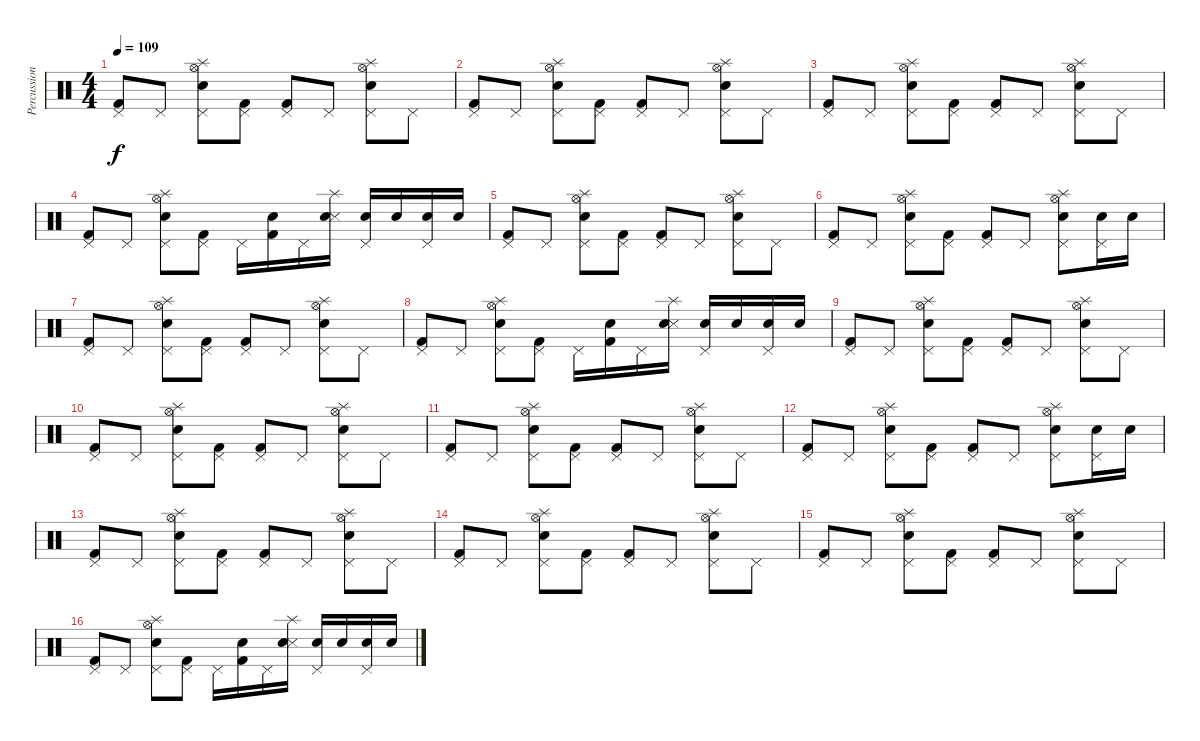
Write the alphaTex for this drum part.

\track ("Percussion" "Percussion") {instrument percussion}
\staff {score}
\articulation defaults
\ts (4 4)
\tempo 109
\clef neutral
\ks c
("Pedal Hi-Hat (hit)" "Kick (hit) 2").8{dy f} "Pedal Hi-Hat (hit)".8 ("Pedal Hi-Hat (hit)" "Splash (hit)" "Electric Snare (hit)" "Hi-Hat (open)").8 ("Pedal Hi-Hat (hit)" "Kick (hit) 2").8 ("Pedal Hi-Hat (hit)" "Kick (hit) 2").8 "Pedal Hi-Hat (hit)".8 ("Pedal Hi-Hat (hit)" "Splash (hit)" "Electric Snare (hit)" "Hi-Hat (open)").8 "Pedal Hi-Hat (hit)".8 |
("Pedal Hi-Hat (hit)" "Kick (hit) 2").8 "Pedal Hi-Hat (hit)".8 ("Pedal Hi-Hat (hit)" "Splash (hit)" "Electric Snare (hit)" "Hi-Hat (open)").8 ("Pedal Hi-Hat (hit)" "Kick (hit) 2").8 ("Pedal Hi-Hat (hit)" "Kick (hit) 2").8 "Pedal Hi-Hat (hit)".8 ("Pedal Hi-Hat (hit)" "Splash (hit)" "Electric Snare (hit)" "Hi-Hat (open)").8 "Pedal Hi-Hat (hit)".8 |
("Pedal Hi-Hat (hit)" "Kick (hit) 2").8 "Pedal Hi-Hat (hit)".8 ("Pedal Hi-Hat (hit)" "Splash (hit)" "Electric Snare (hit)" "Hi-Hat (open)").8 ("Pedal Hi-Hat (hit)" "Kick (hit) 2").8 ("Pedal Hi-Hat (hit)" "Kick (hit) 2").8 "Pedal Hi-Hat (hit)".8 ("Pedal Hi-Hat (hit)" "Splash (hit)" "Electric Snare (hit)" "Hi-Hat (open)").8 "Pedal Hi-Hat (hit)".8 |
("Pedal Hi-Hat (hit)" "Kick (hit) 2").8 "Pedal Hi-Hat (hit)".8 ("Pedal Hi-Hat (hit)" "Splash (hit)" "Electric Snare (hit)" "Hi-Hat (open)").8 ("Pedal Hi-Hat (hit)" "Kick (hit) 2").8 "Pedal Hi-Hat (hit)".16 ("Electric Snare (hit)" "Kick (hit) 2").16 "Pedal Hi-Hat (hit)".16 ("Splash (hit)" "Snare (side stick) 3" "Electric Snare (hit)").16 ("Pedal Hi-Hat (hit)" "Electric Snare (hit)").16 "Electric Snare (hit)".16 ("Pedal Hi-Hat (hit)" "Electric Snare (hit)").16 "Electric Snare (hit)".16 |
("Pedal Hi-Hat (hit)" "Kick (hit) 2").8 "Pedal Hi-Hat (hit)".8 ("Pedal Hi-Hat (hit)" "Splash (hit)" "Electric Snare (hit)" "Hi-Hat (open)").8 ("Pedal Hi-Hat (hit)" "Kick (hit) 2").8 ("Pedal Hi-Hat (hit)" "Kick (hit) 2").8 "Pedal Hi-Hat (hit)".8 ("Pedal Hi-Hat (hit)" "Splash (hit)" "Electric Snare (hit)" "Hi-Hat (open)").8 "Pedal Hi-Hat (hit)".8 |
("Pedal Hi-Hat (hit)" "Kick (hit) 2").8 "Pedal Hi-Hat (hit)".8 ("Pedal Hi-Hat (hit)" "Splash (hit)" "Electric Snare (hit)" "Hi-Hat (open)").8 ("Pedal Hi-Hat (hit)" "Kick (hit) 2").8 ("Pedal Hi-Hat (hit)" "Kick (hit) 2").8 "Pedal Hi-Hat (hit)".8 ("Pedal Hi-Hat (hit)" "Splash (hit)" "Electric Snare (hit)" "Hi-Hat (open)").8 ("Pedal Hi-Hat (hit)" "Electric Snare (hit)").16 "Electric Snare (hit)".16 |
("Pedal Hi-Hat (hit)" "Kick (hit) 2").8 "Pedal Hi-Hat (hit)".8 ("Pedal Hi-Hat (hit)" "Splash (hit)" "Electric Snare (hit)" "Hi-Hat (open)").8 ("Pedal Hi-Hat (hit)" "Kick (hit) 2").8 ("Pedal Hi-Hat (hit)" "Kick (hit) 2").8 "Pedal Hi-Hat (hit)".8 ("Pedal Hi-Hat (hit)" "Splash (hit)" "Electric Snare (hit)" "Hi-Hat (open)").8 "Pedal Hi-Hat (hit)".8 |
("Pedal Hi-Hat (hit)" "Kick (hit) 2").8 "Pedal Hi-Hat (hit)".8 ("Pedal Hi-Hat (hit)" "Splash (hit)" "Electric Snare (hit)" "Hi-Hat (open)").8 ("Pedal Hi-Hat (hit)" "Kick (hit) 2").8 "Pedal Hi-Hat (hit)".16 ("Electric Snare (hit)" "Kick (hit) 2").16 "Pedal Hi-Hat (hit)".16 ("Splash (hit)" "Snare (side stick) 3" "Electric Snare (hit)").16 ("Pedal Hi-Hat (hit)" "Electric Snare (hit)").16 "Electric Snare (hit)".16 ("Pedal Hi-Hat (hit)" "Electric Snare (hit)").16 "Electric Snare (hit)".16 |
("Pedal Hi-Hat (hit)" "Kick (hit) 2").8 "Pedal Hi-Hat (hit)".8 ("Pedal Hi-Hat (hit)" "Splash (hit)" "Electric Snare (hit)" "Hi-Hat (open)").8 ("Pedal Hi-Hat (hit)" "Kick (hit) 2").8 ("Pedal Hi-Hat (hit)" "Kick (hit) 2").8 "Pedal Hi-Hat (hit)".8 ("Pedal Hi-Hat (hit)" "Splash (hit)" "Electric Snare (hit)" "Hi-Hat (open)").8 "Pedal Hi-Hat (hit)".8 |
("Pedal Hi-Hat (hit)" "Kick (hit) 2").8 "Pedal Hi-Hat (hit)".8 ("Pedal Hi-Hat (hit)" "Splash (hit)" "Electric Snare (hit)" "Hi-Hat (open)").8 ("Pedal Hi-Hat (hit)" "Kick (hit) 2").8 ("Pedal Hi-Hat (hit)" "Kick (hit) 2").8 "Pedal Hi-Hat (hit)".8 ("Pedal Hi-Hat (hit)" "Splash (hit)" "Electric Snare (hit)" "Hi-Hat (open)").8 "Pedal Hi-Hat (hit)".8 |
("Pedal Hi-Hat (hit)" "Kick (hit) 2").8 "Pedal Hi-Hat (hit)".8 ("Pedal Hi-Hat (hit)" "Splash (hit)" "Electric Snare (hit)" "Hi-Hat (open)").8 ("Pedal Hi-Hat (hit)" "Kick (hit) 2").8 ("Pedal Hi-Hat (hit)" "Kick (hit) 2").8 "Pedal Hi-Hat (hit)".8 ("Pedal Hi-Hat (hit)" "Splash (hit)" "Electric Snare (hit)" "Hi-Hat (open)").8 "Pedal Hi-Hat (hit)".8 |
("Pedal Hi-Hat (hit)" "Kick (hit) 2").8 "Pedal Hi-Hat (hit)".8 ("Pedal Hi-Hat (hit)" "Splash (hit)" "Electric Snare (hit)" "Hi-Hat (open)").8 ("Pedal Hi-Hat (hit)" "Kick (hit) 2").8 ("Pedal Hi-Hat (hit)" "Kick (hit) 2").8 "Pedal Hi-Hat (hit)".8 ("Pedal Hi-Hat (hit)" "Splash (hit)" "Electric Snare (hit)" "Hi-Hat (open)").8 ("Pedal Hi-Hat (hit)" "Electric Snare (hit)").16 "Electric Snare (hit)".16 |
("Pedal Hi-Hat (hit)" "Kick (hit) 2").8 "Pedal Hi-Hat (hit)".8 ("Pedal Hi-Hat (hit)" "Splash (hit)" "Electric Snare (hit)" "Hi-Hat (open)").8 ("Pedal Hi-Hat (hit)" "Kick (hit) 2").8 ("Pedal Hi-Hat (hit)" "Kick (hit) 2").8 "Pedal Hi-Hat (hit)".8 ("Pedal Hi-Hat (hit)" "Splash (hit)" "Electric Snare (hit)" "Hi-Hat (open)").8 "Pedal Hi-Hat (hit)".8 |
("Pedal Hi-Hat (hit)" "Kick (hit) 2").8 "Pedal Hi-Hat (hit)".8 ("Pedal Hi-Hat (hit)" "Splash (hit)" "Electric Snare (hit)" "Hi-Hat (open)").8 ("Pedal Hi-Hat (hit)" "Kick (hit) 2").8 ("Pedal Hi-Hat (hit)" "Kick (hit) 2").8 "Pedal Hi-Hat (hit)".8 ("Pedal Hi-Hat (hit)" "Splash (hit)" "Electric Snare (hit)" "Hi-Hat (open)").8 "Pedal Hi-Hat (hit)".8 |
("Pedal Hi-Hat (hit)" "Kick (hit) 2").8 "Pedal Hi-Hat (hit)".8 ("Pedal Hi-Hat (hit)" "Splash (hit)" "Electric Snare (hit)" "Hi-Hat (open)").8 ("Pedal Hi-Hat (hit)" "Kick (hit) 2").8 ("Pedal Hi-Hat (hit)" "Kick (hit) 2").8 "Pedal Hi-Hat (hit)".8 ("Pedal Hi-Hat (hit)" "Splash (hit)" "Electric Snare (hit)" "Hi-Hat (open)").8 "Pedal Hi-Hat (hit)".8 |
("Pedal Hi-Hat (hit)" "Kick (hit) 2").8 "Pedal Hi-Hat (hit)".8 ("Pedal Hi-Hat (hit)" "Splash (hit)" "Electric Snare (hit)" "Hi-Hat (open)").8 ("Pedal Hi-Hat (hit)" "Kick (hit) 2").8 "Pedal Hi-Hat (hit)".16 ("Electric Snare (hit)" "Kick (hit) 2").16 "Pedal Hi-Hat (hit)".16 ("Splash (hit)" "Snare (side stick) 3" "Electric Snare (hit)").16 ("Pedal Hi-Hat (hit)" "Electric Snare (hit)").16 "Electric Snare (hit)".16 ("Pedal Hi-Hat (hit)" "Electric Snare (hit)").16 "Electric Snare (hit)".16
